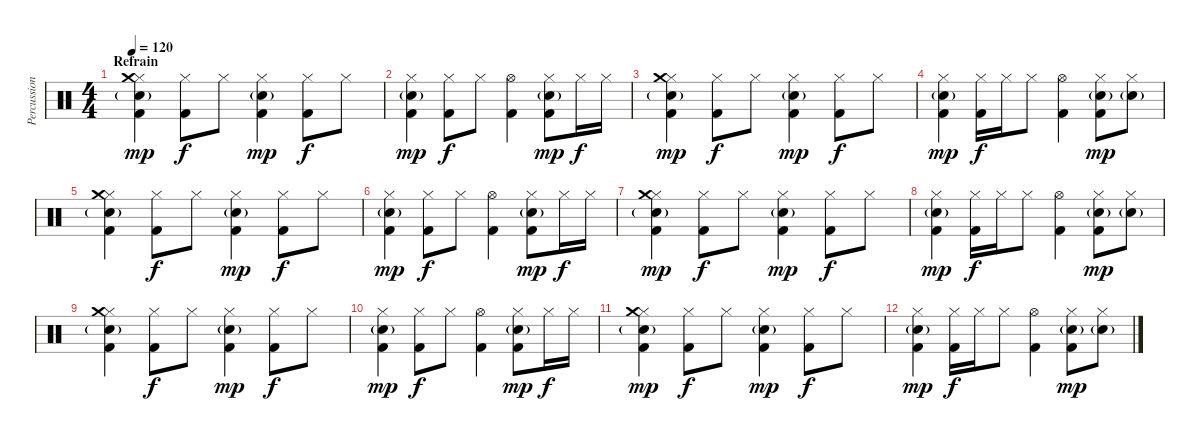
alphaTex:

\track ("Percussions" "Percussion") {instrument percussion}
\staff {score}
\articulation defaults
\ts (4 4)
\section ("" "Refrain")
\tempo 120
\clef neutral
\ks c
("Hi-Hat (closed)" "Electric Snare (hit)"{g} "Kick (hit) 2" "Crash medium (hit)").4{dy mp} ("Hi-Hat (closed)" "Kick (hit) 2").8{dy f} "Hi-Hat (closed)".8 ("Hi-Hat (closed)" "Electric Snare (hit)"{g} "Kick (hit) 2").4{dy mp} ("Hi-Hat (closed)" "Kick (hit) 2").8{dy f} "Hi-Hat (closed)".8 |
("Hi-Hat (closed)" "Electric Snare (hit)"{g} "Kick (hit) 2").4{dy mp} ("Hi-Hat (closed)" "Kick (hit) 2").8{dy f} "Hi-Hat (closed)".8 ("Hi-Hat (open)" "Kick (hit) 2").4 ("Hi-Hat (closed)" "Electric Snare (hit)"{g} "Kick (hit) 2").8{dy mp} "Hi-Hat (closed)".16{dy f} "Hi-Hat (closed)".16 |
("Hi-Hat (closed)" "Electric Snare (hit)"{g} "Kick (hit) 2" "Crash medium (hit)").4{dy mp} ("Hi-Hat (closed)" "Kick (hit) 2").8{dy f} "Hi-Hat (closed)".8 ("Hi-Hat (closed)" "Electric Snare (hit)"{g} "Kick (hit) 2").4{dy mp} ("Hi-Hat (closed)" "Kick (hit) 2").8{dy f} "Hi-Hat (closed)".8 |
("Hi-Hat (closed)" "Electric Snare (hit)"{g} "Kick (hit) 2").4{dy mp} ("Hi-Hat (closed)" "Kick (hit) 2").16{dy f} "Hi-Hat (closed)".16 "Hi-Hat (closed)".8 ("Hi-Hat (open)" "Kick (hit) 2").4 ("Hi-Hat (closed)" "Electric Snare (hit)"{g} "Kick (hit) 2").8{dy mp} ("Hi-Hat (closed)" "Electric Snare (hit)"{g}).8 |
("Hi-Hat (closed)" "Electric Snare (hit)"{g} "Kick (hit) 2" "Crash medium (hit)").4 ("Hi-Hat (closed)" "Kick (hit) 2").8{dy f} "Hi-Hat (closed)".8 ("Hi-Hat (closed)" "Electric Snare (hit)"{g} "Kick (hit) 2").4{dy mp} ("Hi-Hat (closed)" "Kick (hit) 2").8{dy f} "Hi-Hat (closed)".8 |
("Hi-Hat (closed)" "Electric Snare (hit)"{g} "Kick (hit) 2").4{dy mp} ("Hi-Hat (closed)" "Kick (hit) 2").8{dy f} "Hi-Hat (closed)".8 ("Hi-Hat (open)" "Kick (hit) 2").4 ("Hi-Hat (closed)" "Electric Snare (hit)"{g} "Kick (hit) 2").8{dy mp} "Hi-Hat (closed)".16{dy f} "Hi-Hat (closed)".16 |
("Hi-Hat (closed)" "Electric Snare (hit)"{g} "Kick (hit) 2" "Crash medium (hit)").4{dy mp} ("Hi-Hat (closed)" "Kick (hit) 2").8{dy f} "Hi-Hat (closed)".8 ("Hi-Hat (closed)" "Electric Snare (hit)"{g} "Kick (hit) 2").4{dy mp} ("Hi-Hat (closed)" "Kick (hit) 2").8{dy f} "Hi-Hat (closed)".8 |
("Hi-Hat (closed)" "Electric Snare (hit)"{g} "Kick (hit) 2").4{dy mp} ("Hi-Hat (closed)" "Kick (hit) 2").16{dy f} "Hi-Hat (closed)".16 "Hi-Hat (closed)".8 ("Hi-Hat (open)" "Kick (hit) 2").4 ("Hi-Hat (closed)" "Electric Snare (hit)"{g} "Kick (hit) 2").8{dy mp} ("Hi-Hat (closed)" "Electric Snare (hit)"{g}).8 |
("Hi-Hat (closed)" "Electric Snare (hit)"{g} "Kick (hit) 2" "Crash medium (hit)").4 ("Hi-Hat (closed)" "Kick (hit) 2").8{dy f} "Hi-Hat (closed)".8 ("Hi-Hat (closed)" "Electric Snare (hit)"{g} "Kick (hit) 2").4{dy mp} ("Hi-Hat (closed)" "Kick (hit) 2").8{dy f} "Hi-Hat (closed)".8 |
("Hi-Hat (closed)" "Electric Snare (hit)"{g} "Kick (hit) 2").4{dy mp} ("Hi-Hat (closed)" "Kick (hit) 2").8{dy f} "Hi-Hat (closed)".8 ("Hi-Hat (open)" "Kick (hit) 2").4 ("Hi-Hat (closed)" "Electric Snare (hit)"{g} "Kick (hit) 2").8{dy mp} "Hi-Hat (closed)".16{dy f} "Hi-Hat (closed)".16 |
("Hi-Hat (closed)" "Electric Snare (hit)"{g} "Kick (hit) 2" "Crash medium (hit)").4{dy mp} ("Hi-Hat (closed)" "Kick (hit) 2").8{dy f} "Hi-Hat (closed)".8 ("Hi-Hat (closed)" "Electric Snare (hit)"{g} "Kick (hit) 2").4{dy mp} ("Hi-Hat (closed)" "Kick (hit) 2").8{dy f} "Hi-Hat (closed)".8 |
("Hi-Hat (closed)" "Electric Snare (hit)"{g} "Kick (hit) 2").4{dy mp} ("Hi-Hat (closed)" "Kick (hit) 2").16{dy f} "Hi-Hat (closed)".16 "Hi-Hat (closed)".8 ("Hi-Hat (open)" "Kick (hit) 2").4 ("Hi-Hat (closed)" "Electric Snare (hit)"{g} "Kick (hit) 2").8{dy mp} ("Hi-Hat (closed)" "Electric Snare (hit)"{g}).8
